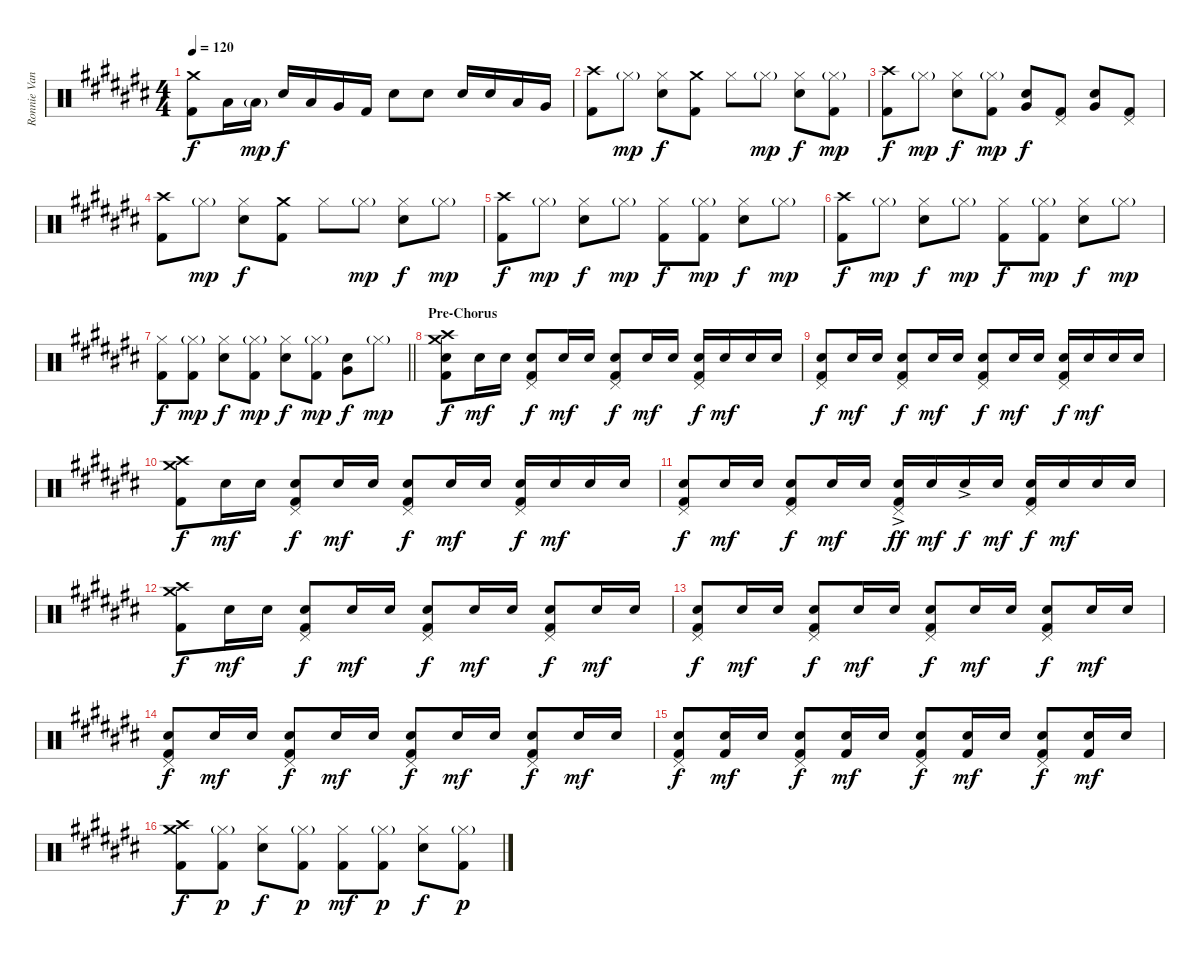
\track ("Ronnie Vannucci Jr. drums" "Ronnie Van") {instrument percussion}
\staff {score}
\articulation defaults
\ts (4 4)
\tempo 120
\clef neutral
\ks c#
("Crash medium (hit)" "Kick (hit) 2").8{dy f} "Low Tom (hit)".16 "Low Tom (hit)"{g}.16{dy mp} "Electric Snare (hit)".16{dy f} "Low Tom (hit)".16 "Very Low Tom (hit)".16 "Kick (hit) 2".16 "Electric Snare (hit)".8 "Electric Snare (hit)".8 "Electric Snare (hit)".16 "Electric Snare (hit)".16 "Low Tom (hit)".16 "Very Low Tom (hit)".16 |
("Crash high (hit)" "Kick (hit) 2").8 "Hi-Hat (closed)"{g}.8{dy mp} ("Hi-Hat (closed)" "Electric Snare (hit)").8{dy f} ("Crash medium (hit)" "Kick (hit) 2").8 "Hi-Hat (closed)".8 "Hi-Hat (closed)"{g}.8{dy mp} ("Hi-Hat (closed)" "Electric Snare (hit)").8{dy f} ("Hi-Hat (closed)"{g} "Kick (hit) 2").8{dy mp} |
("Crash high (hit)" "Kick (hit) 2").8{dy f} "Hi-Hat (closed)"{g}.8{dy mp} ("Hi-Hat (closed)" "Electric Snare (hit)").8{dy f} ("Hi-Hat (closed)"{g} "Kick (hit) 2").8{dy mp} ("Very Low Tom (hit)" "Electric Snare (hit)").8{dy f} ("Pedal Hi-Hat (hit)" "Kick (hit) 2").8 ("Very Low Tom (hit)" "Electric Snare (hit)").8 ("Pedal Hi-Hat (hit)" "Kick (hit) 2").8 |
("Crash high (hit)" "Kick (hit) 2").8 "Hi-Hat (closed)"{g}.8{dy mp} ("Hi-Hat (closed)" "Electric Snare (hit)").8{dy f} ("Crash medium (hit)" "Kick (hit) 2").8 "Hi-Hat (closed)".8 "Hi-Hat (closed)"{g}.8{dy mp} ("Hi-Hat (closed)" "Electric Snare (hit)").8{dy f} "Hi-Hat (closed)"{g}.8{dy mp} |
("Crash high (hit)" "Kick (hit) 2").8{dy f} "Hi-Hat (closed)"{g}.8{dy mp} ("Hi-Hat (closed)" "Electric Snare (hit)").8{dy f} "Hi-Hat (closed)"{g}.8{dy mp} ("Hi-Hat (closed)" "Kick (hit) 2").8{dy f} ("Hi-Hat (closed)"{g} "Kick (hit) 2").8{dy mp} ("Hi-Hat (closed)" "Electric Snare (hit)").8{dy f} "Hi-Hat (closed)"{g}.8{dy mp} |
("Crash high (hit)" "Kick (hit) 2").8{dy f} "Hi-Hat (closed)"{g}.8{dy mp} ("Hi-Hat (closed)" "Electric Snare (hit)").8{dy f} "Hi-Hat (closed)"{g}.8{dy mp} ("Hi-Hat (closed)" "Kick (hit) 2").8{dy f} ("Hi-Hat (closed)"{g} "Kick (hit) 2").8{dy mp} ("Hi-Hat (closed)" "Electric Snare (hit)").8{dy f} "Hi-Hat (closed)"{g}.8{dy mp} |
\barLineRight lightlight
("Hi-Hat (closed)" "Kick (hit) 2").8{dy f} ("Hi-Hat (closed)"{g} "Kick (hit) 2").8{dy mp} ("Hi-Hat (closed)" "Electric Snare (hit)").8{dy f} ("Hi-Hat (closed)"{g} "Kick (hit) 2").8{dy mp} ("Hi-Hat (closed)" "Electric Snare (hit)").8{dy f} ("Hi-Hat (closed)"{g} "Kick (hit) 2").8{dy mp} ("Very Low Tom (hit)" "Electric Snare (hit)").8{dy f} "Hi-Hat (closed)"{g}.8{dy mp} |
\section ("" "Pre-Chorus")
("Crash high (hit)" "Crash medium (hit)" "Electric Snare (hit)" "Kick (hit) 2").8{dy f} "Electric Snare (hit)".16{dy mf} "Electric Snare (hit)".16 ("Pedal Hi-Hat (hit)" "Electric Snare (hit)" "Kick (hit) 2").8{dy f} "Electric Snare (hit)".16{dy mf} "Electric Snare (hit)".16 ("Pedal Hi-Hat (hit)" "Electric Snare (hit)" "Kick (hit) 2").8{dy f} "Electric Snare (hit)".16{dy mf} "Electric Snare (hit)".16 ("Pedal Hi-Hat (hit)" "Electric Snare (hit)" "Kick (hit) 2").16{dy f} "Electric Snare (hit)".16{dy mf} "Electric Snare (hit)".16 "Electric Snare (hit)".16 |
("Pedal Hi-Hat (hit)" "Electric Snare (hit)" "Kick (hit) 2").8{dy f} "Electric Snare (hit)".16{dy mf} "Electric Snare (hit)".16 ("Pedal Hi-Hat (hit)" "Electric Snare (hit)" "Kick (hit) 2").8{dy f} "Electric Snare (hit)".16{dy mf} "Electric Snare (hit)".16 ("Pedal Hi-Hat (hit)" "Electric Snare (hit)" "Kick (hit) 2").8{dy f} "Electric Snare (hit)".16{dy mf} "Electric Snare (hit)".16 ("Pedal Hi-Hat (hit)" "Electric Snare (hit)" "Kick (hit) 2").16{dy f} "Electric Snare (hit)".16{dy mf} "Electric Snare (hit)".16 "Electric Snare (hit)".16 |
("Crash high (hit)" "Crash medium (hit)" "Kick (hit) 2").8{dy f} "Electric Snare (hit)".16{dy mf} "Electric Snare (hit)".16 ("Pedal Hi-Hat (hit)" "Electric Snare (hit)" "Kick (hit) 2").8{dy f} "Electric Snare (hit)".16{dy mf} "Electric Snare (hit)".16 ("Pedal Hi-Hat (hit)" "Electric Snare (hit)" "Kick (hit) 2").8{dy f} "Electric Snare (hit)".16{dy mf} "Electric Snare (hit)".16 ("Pedal Hi-Hat (hit)" "Electric Snare (hit)" "Kick (hit) 2").16{dy f} "Electric Snare (hit)".16{dy mf} "Electric Snare (hit)".16 "Electric Snare (hit)".16 |
("Pedal Hi-Hat (hit)" "Electric Snare (hit)" "Kick (hit) 2").8{dy f} "Electric Snare (hit)".16{dy mf} "Electric Snare (hit)".16 ("Pedal Hi-Hat (hit)" "Electric Snare (hit)" "Kick (hit) 2").8{dy f} "Electric Snare (hit)".16{dy mf} "Electric Snare (hit)".16 ("Pedal Hi-Hat (hit)" "Electric Snare (hit)"{ac} "Kick (hit) 2").16{dy ff} "Electric Snare (hit)".16{dy mf} "Electric Snare (hit)"{ac}.16{dy f} "Electric Snare (hit)".16{dy mf} ("Pedal Hi-Hat (hit)" "Electric Snare (hit)" "Kick (hit) 2").16{dy f} "Electric Snare (hit)".16{dy mf} "Electric Snare (hit)".16 "Electric Snare (hit)".16 |
("Crash medium (hit)" "Crash high (hit)" "Kick (hit) 2").8{dy f} "Electric Snare (hit)".16{dy mf} "Electric Snare (hit)".16 ("Pedal Hi-Hat (hit)" "Electric Snare (hit)" "Kick (hit) 2").8{dy f} "Electric Snare (hit)".16{dy mf} "Electric Snare (hit)".16 ("Pedal Hi-Hat (hit)" "Electric Snare (hit)" "Kick (hit) 2").8{dy f} "Electric Snare (hit)".16{dy mf} "Electric Snare (hit)".16 ("Pedal Hi-Hat (hit)" "Electric Snare (hit)" "Kick (hit) 2").8{dy f} "Electric Snare (hit)".16{dy mf} "Electric Snare (hit)".16 |
("Pedal Hi-Hat (hit)" "Electric Snare (hit)" "Kick (hit) 2").8{dy f} "Electric Snare (hit)".16{dy mf} "Electric Snare (hit)".16 ("Pedal Hi-Hat (hit)" "Electric Snare (hit)" "Kick (hit) 2").8{dy f} "Electric Snare (hit)".16{dy mf} "Electric Snare (hit)".16 ("Pedal Hi-Hat (hit)" "Electric Snare (hit)" "Kick (hit) 2").8{dy f} "Electric Snare (hit)".16{dy mf} "Electric Snare (hit)".16 ("Pedal Hi-Hat (hit)" "Electric Snare (hit)" "Kick (hit) 2").8{dy f} "Electric Snare (hit)".16{dy mf} "Electric Snare (hit)".16 |
("Pedal Hi-Hat (hit)" "Electric Snare (hit)" "Kick (hit) 2").8{dy f} "Electric Snare (hit)".16{dy mf} "Electric Snare (hit)".16 ("Pedal Hi-Hat (hit)" "Electric Snare (hit)" "Kick (hit) 2").8{dy f} "Electric Snare (hit)".16{dy mf} "Electric Snare (hit)".16 ("Pedal Hi-Hat (hit)" "Electric Snare (hit)" "Kick (hit) 2").8{dy f} "Electric Snare (hit)".16{dy mf} "Electric Snare (hit)".16 ("Pedal Hi-Hat (hit)" "Electric Snare (hit)" "Kick (hit) 2").8{dy f} "Electric Snare (hit)".16{dy mf} "Electric Snare (hit)".16 |
("Pedal Hi-Hat (hit)" "Electric Snare (hit)" "Kick (hit) 2").8{dy f} ("Electric Snare (hit)" "Kick (hit) 2").16{dy mf} "Electric Snare (hit)".16 ("Pedal Hi-Hat (hit)" "Electric Snare (hit)" "Kick (hit) 2").8{dy f} ("Electric Snare (hit)" "Kick (hit) 2").16{dy mf} "Electric Snare (hit)".16 ("Pedal Hi-Hat (hit)" "Electric Snare (hit)" "Kick (hit) 2").8{dy f} ("Electric Snare (hit)" "Kick (hit) 2").16{dy mf} "Electric Snare (hit)".16 ("Pedal Hi-Hat (hit)" "Electric Snare (hit)" "Kick (hit) 2").8{dy f} ("Electric Snare (hit)" "Kick (hit) 2").16{dy mf} "Electric Snare (hit)".16 |
("Crash high (hit)" "Crash medium (hit)" "Kick (hit) 2").8{dy f} ("Hi-Hat (closed)"{g} "Kick (hit) 2").8{dy p} ("Hi-Hat (closed)" "Electric Snare (hit)").8{dy f} ("Hi-Hat (closed)"{g} "Kick (hit) 2").8{dy p} ("Hi-Hat (closed)" "Kick (hit) 2").8{dy mf} ("Hi-Hat (closed)"{g} "Kick (hit) 2").8{dy p} ("Hi-Hat (closed)" "Electric Snare (hit)").8{dy f} ("Hi-Hat (closed)"{g} "Kick (hit) 2").8{dy p}
